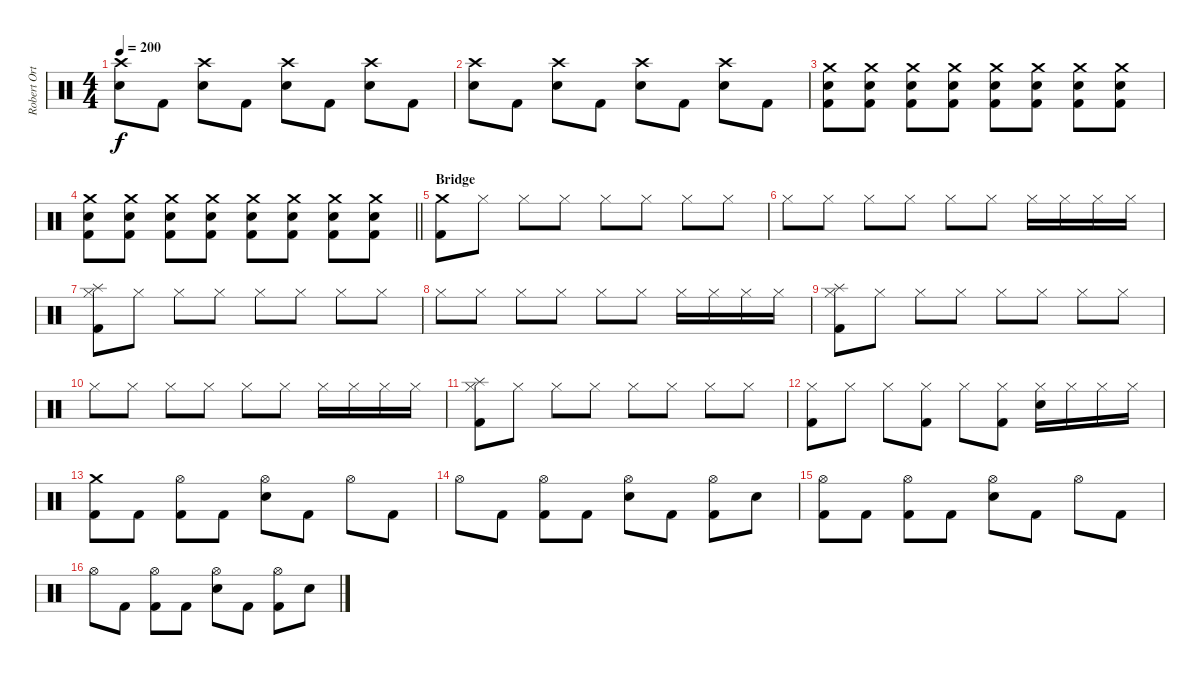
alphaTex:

\track ("Robert Ortiz - Drums" "Robert Ort") {instrument percussion}
\staff {score}
\articulation defaults
\ts (4 4)
\tempo 200
\clef neutral
\ks c
("Crash high (hit)" "Electric Snare (hit)").8{dy f} "Kick (hit) 2".8 ("Crash high (hit)" "Electric Snare (hit)").8 "Kick (hit) 2".8 ("Crash high (hit)" "Electric Snare (hit)").8 "Kick (hit) 2".8 ("Crash high (hit)" "Electric Snare (hit)").8 "Kick (hit) 2".8 |
("Crash high (hit)" "Electric Snare (hit)").8 "Kick (hit) 2".8 ("Crash high (hit)" "Electric Snare (hit)").8 "Kick (hit) 2".8 ("Crash high (hit)" "Electric Snare (hit)").8 "Kick (hit) 2".8 ("Crash high (hit)" "Electric Snare (hit)").8 "Kick (hit) 2".8 |
("Crash medium (hit)" "Electric Snare (hit)" "Kick (hit) 2").8 ("Crash medium (hit)" "Electric Snare (hit)" "Kick (hit) 2").8 ("Crash medium (hit)" "Electric Snare (hit)" "Kick (hit) 2").8 ("Crash medium (hit)" "Electric Snare (hit)" "Kick (hit) 2").8 ("Crash medium (hit)" "Electric Snare (hit)" "Kick (hit) 2").8 ("Crash medium (hit)" "Electric Snare (hit)" "Kick (hit) 2").8 ("Crash medium (hit)" "Electric Snare (hit)" "Kick (hit) 2").8 ("Crash medium (hit)" "Electric Snare (hit)" "Kick (hit) 2").8 |
\barLineRight lightlight
("Crash medium (hit)" "Electric Snare (hit)" "Kick (hit) 2").8 ("Crash medium (hit)" "Electric Snare (hit)" "Kick (hit) 2").8 ("Crash medium (hit)" "Electric Snare (hit)" "Kick (hit) 2").8 ("Crash medium (hit)" "Electric Snare (hit)" "Kick (hit) 2").8 ("Crash medium (hit)" "Electric Snare (hit)" "Kick (hit) 2").8 ("Crash medium (hit)" "Electric Snare (hit)" "Kick (hit) 2").8 ("Crash medium (hit)" "Electric Snare (hit)" "Kick (hit) 2").8 ("Crash medium (hit)" "Electric Snare (hit)" "Kick (hit) 2").8 |
\section ("" "Bridge")
("Crash medium (hit)" "Kick (hit) 2").8 "Hi-Hat (closed)".8 "Hi-Hat (closed)".8 "Hi-Hat (closed)".8 "Hi-Hat (closed)".8 "Hi-Hat (closed)".8 "Hi-Hat (closed)".8 "Hi-Hat (closed)".8 |
"Hi-Hat (closed)".8 "Hi-Hat (closed)".8 "Hi-Hat (closed)".8 "Hi-Hat (closed)".8 "Hi-Hat (closed)".8 "Hi-Hat (closed)".8 "Hi-Hat (closed)".16 "Hi-Hat (closed)".16 "Hi-Hat (closed)".16 "Hi-Hat (closed)".16 |
("Splash (hit)" "Hi-Hat (closed)" "Kick (hit) 2").8 "Hi-Hat (closed)".8 "Hi-Hat (closed)".8 "Hi-Hat (closed)".8 "Hi-Hat (closed)".8 "Hi-Hat (closed)".8 "Hi-Hat (closed)".8 "Hi-Hat (closed)".8 |
"Hi-Hat (closed)".8 "Hi-Hat (closed)".8 "Hi-Hat (closed)".8 "Hi-Hat (closed)".8 "Hi-Hat (closed)".8 "Hi-Hat (closed)".8 "Hi-Hat (closed)".16 "Hi-Hat (closed)".16 "Hi-Hat (closed)".16 "Hi-Hat (closed)".16 |
("Splash (hit)" "Hi-Hat (closed)" "Kick (hit) 2").8 "Hi-Hat (closed)".8 "Hi-Hat (closed)".8 "Hi-Hat (closed)".8 "Hi-Hat (closed)".8 "Hi-Hat (closed)".8 "Hi-Hat (closed)".8 "Hi-Hat (closed)".8 |
"Hi-Hat (closed)".8 "Hi-Hat (closed)".8 "Hi-Hat (closed)".8 "Hi-Hat (closed)".8 "Hi-Hat (closed)".8 "Hi-Hat (closed)".8 "Hi-Hat (closed)".16 "Hi-Hat (closed)".16 "Hi-Hat (closed)".16 "Hi-Hat (closed)".16 |
("Splash (hit)" "Hi-Hat (closed)" "Kick (hit) 2").8 "Hi-Hat (closed)".8 "Hi-Hat (closed)".8 "Hi-Hat (closed)".8 "Hi-Hat (closed)".8 "Hi-Hat (closed)".8 "Hi-Hat (closed)".8 "Hi-Hat (closed)".8 |
("Hi-Hat (closed)" "Kick (hit) 2").8 "Hi-Hat (closed)".8 "Hi-Hat (closed)".8 ("Hi-Hat (closed)" "Kick (hit) 2").8 "Hi-Hat (closed)".8 ("Hi-Hat (closed)" "Kick (hit) 2").8 ("Hi-Hat (closed)" "Electric Snare (hit)").16 "Hi-Hat (closed)".16 "Hi-Hat (closed)".16 "Hi-Hat (closed)".16 |
("Crash medium (hit)" "Kick (hit) 2").8 "Kick (hit) 2".8 ("Hi-Hat (open)" "Kick (hit) 2").8 "Kick (hit) 2".8 ("Hi-Hat (open)" "Electric Snare (hit)").8 "Kick (hit) 2".8 "Hi-Hat (open)".8 "Kick (hit) 2".8 |
"Hi-Hat (open)".8 "Kick (hit) 2".8 ("Hi-Hat (open)" "Kick (hit) 2").8 "Kick (hit) 2".8 ("Hi-Hat (open)" "Electric Snare (hit)").8 "Kick (hit) 2".8 ("Hi-Hat (open)" "Kick (hit) 2").8 "Electric Snare (hit)".8 |
("Hi-Hat (open)" "Kick (hit) 2").8 "Kick (hit) 2".8 ("Hi-Hat (open)" "Kick (hit) 2").8 "Kick (hit) 2".8 ("Hi-Hat (open)" "Electric Snare (hit)").8 "Kick (hit) 2".8 "Hi-Hat (open)".8 "Kick (hit) 2".8 |
"Hi-Hat (open)".8 "Kick (hit) 2".8 ("Hi-Hat (open)" "Kick (hit) 2").8 "Kick (hit) 2".8 ("Hi-Hat (open)" "Electric Snare (hit)").8 "Kick (hit) 2".8 ("Hi-Hat (open)" "Kick (hit) 2").8 "Electric Snare (hit)".8
